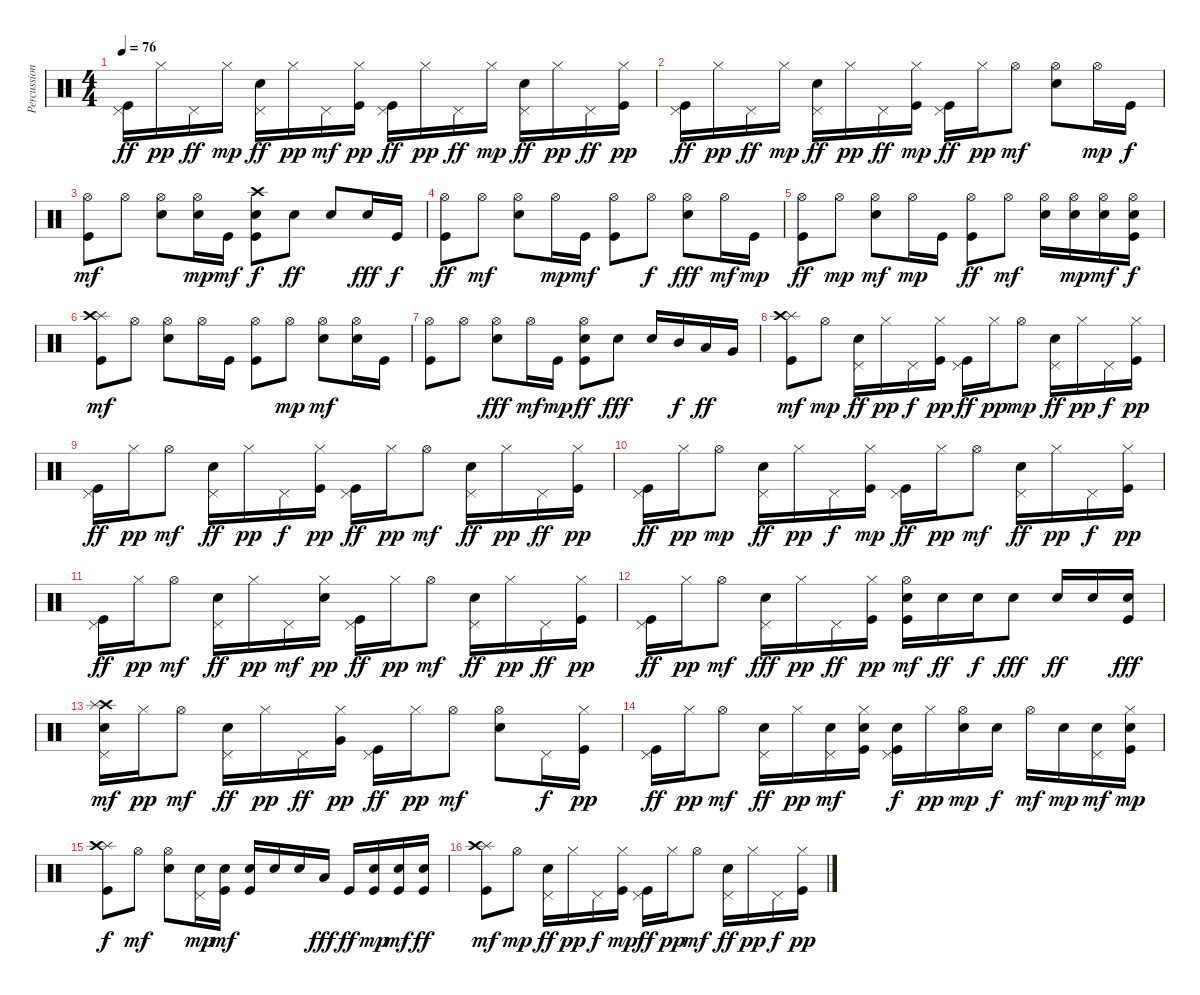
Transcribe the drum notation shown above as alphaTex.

\track ("Percussion" "Percussion") {instrument percussion}
\staff {score}
\articulation defaults
\ts (4 4)
\tempo 76
\clef neutral
\ks c
("Pedal Hi-Hat (hit)" "Kick (hit)").16{dy ff} "Hi-Hat (closed)".16{dy pp} "Pedal Hi-Hat (hit)".16{dy ff} "Hi-Hat (closed)".16{dy mp} ("Pedal Hi-Hat (hit)" "Snare (hit) 2").16{dy ff} "Hi-Hat (closed)".16{dy pp} "Pedal Hi-Hat (hit)".16{dy mf} ("Hi-Hat (closed)" "Kick (hit)").16{dy pp} ("Pedal Hi-Hat (hit)" "Kick (hit)").16{dy ff} "Hi-Hat (closed)".16{dy pp} "Pedal Hi-Hat (hit)".16{dy ff} "Hi-Hat (closed)".16{dy mp} ("Pedal Hi-Hat (hit)" "Snare (hit) 2").16{dy ff} "Hi-Hat (closed)".16{dy pp} "Pedal Hi-Hat (hit)".16{dy ff} ("Hi-Hat (closed)" "Kick (hit)").16{dy pp} |
("Pedal Hi-Hat (hit)" "Kick (hit)").16{dy ff} "Hi-Hat (closed)".16{dy pp} "Pedal Hi-Hat (hit)".16{dy ff} "Hi-Hat (closed)".16{dy mp} ("Pedal Hi-Hat (hit)" "Snare (hit) 2").16{dy ff} "Hi-Hat (closed)".16{dy pp} "Pedal Hi-Hat (hit)".16{dy ff} ("Hi-Hat (closed)" "Kick (hit)").16{dy mp} ("Pedal Hi-Hat (hit)" "Kick (hit)").16{dy ff} "Hi-Hat (closed)".16{dy pp} "Hi-Hat (open)".8{dy mf} ("Hi-Hat (open)" "Snare (hit) 2").8 "Hi-Hat (open)".16{dy mp} "Kick (hit)".16{dy f} |
("Hi-Hat (open)" "Kick (hit)").8{dy mf} "Hi-Hat (open)".8 ("Hi-Hat (open)" "Snare (hit) 2").8 ("Hi-Hat (open)" "Snare (hit) 2").16{dy mp} "Kick (hit)".16{dy mf} ("Crash high (hit)" "Snare (hit) 2" "Kick (hit)").8{dy f} "Snare (hit) 2".8{dy ff} "Snare (hit) 2".8 "Snare (hit) 2".16{dy fff} "Kick (hit)".16{dy f} |
("Hi-Hat (open)" "Kick (hit)").8{dy ff} "Hi-Hat (open)".8{dy mf} ("Hi-Hat (open)" "Snare (hit) 2").8 "Hi-Hat (open)".16{dy mp} "Kick (hit)".16{dy mf} ("Hi-Hat (open)" "Kick (hit)").8 "Hi-Hat (open)".8{dy f} ("Hi-Hat (open)" "Snare (hit) 2").8{dy fff} "Hi-Hat (open)".16{dy mf} "Kick (hit)".16{dy mp} |
("Hi-Hat (open)" "Kick (hit)").8{dy ff} "Hi-Hat (open)".8{dy mp} ("Hi-Hat (open)" "Snare (hit) 2").8{dy mf} "Hi-Hat (open)".16{dy mp} "Kick (hit)".16 ("Hi-Hat (open)" "Kick (hit)").8{dy ff} "Hi-Hat (open)".8{dy mf} ("Hi-Hat (open)" "Snare (hit) 2").16 ("Hi-Hat (open)" "Snare (hit) 2").16{dy mp} ("Hi-Hat (open)" "Snare (hit) 2").16{dy mf} ("Hi-Hat (open)" "Snare (hit) 2" "Kick (hit)").16{dy f} |
("Splash (hit)" "Crash high (hit)" "Kick (hit)").8{dy mf} "Hi-Hat (open)".8 ("Hi-Hat (open)" "Snare (hit) 2").8 "Hi-Hat (open)".16 "Kick (hit)".16 ("Hi-Hat (open)" "Kick (hit)").8 "Hi-Hat (open)".8{dy mp} ("Hi-Hat (open)" "Snare (hit) 2").8{dy mf} ("Hi-Hat (open)" "Snare (hit) 2").16 "Kick (hit)".16 |
("Hi-Hat (open)" "Kick (hit)").8 "Hi-Hat (open)".8 ("Hi-Hat (open)" "Snare (hit) 2").8{dy fff} "Hi-Hat (open)".16{dy mf} "Kick (hit)".16{dy mp} ("Hi-Hat (open)" "Snare (hit) 2" "Kick (hit)").8{dy ff} "Snare (hit) 2".8{dy fff} "Snare (hit) 2".16 "Mid Tom (hit)".16{dy f} "Low Tom (hit)".16{dy ff} "Very Low Tom (hit)".16 |
("Splash (hit)" "Crash high (hit)" "Kick (hit)").8{dy mf} "Hi-Hat (open)".8{dy mp} ("Pedal Hi-Hat (hit)" "Snare (hit) 2").16{dy ff} "Hi-Hat (closed)".16{dy pp} "Pedal Hi-Hat (hit)".16{dy f} ("Hi-Hat (closed)" "Kick (hit)").16{dy pp} ("Pedal Hi-Hat (hit)" "Kick (hit)").16{dy ff} "Hi-Hat (closed)".16{dy pp} "Hi-Hat (open)".8{dy mp} ("Pedal Hi-Hat (hit)" "Snare (hit) 2").16{dy ff} "Hi-Hat (closed)".16{dy pp} "Pedal Hi-Hat (hit)".16{dy f} ("Hi-Hat (closed)" "Kick (hit)").16{dy pp} |
("Pedal Hi-Hat (hit)" "Kick (hit)").16{dy ff} "Hi-Hat (closed)".16{dy pp} "Hi-Hat (open)".8{dy mf} ("Pedal Hi-Hat (hit)" "Snare (hit) 2").16{dy ff} "Hi-Hat (closed)".16{dy pp} "Pedal Hi-Hat (hit)".16{dy f} ("Hi-Hat (closed)" "Kick (hit)").16{dy pp} ("Pedal Hi-Hat (hit)" "Kick (hit)").16{dy ff} "Hi-Hat (closed)".16{dy pp} "Hi-Hat (open)".8{dy mf} ("Pedal Hi-Hat (hit)" "Snare (hit) 2").16{dy ff} "Hi-Hat (closed)".16{dy pp} "Pedal Hi-Hat (hit)".16{dy ff} ("Hi-Hat (closed)" "Kick (hit)").16{dy pp} |
("Pedal Hi-Hat (hit)" "Kick (hit)").16{dy ff} "Hi-Hat (closed)".16{dy pp} "Hi-Hat (open)".8{dy mp} ("Pedal Hi-Hat (hit)" "Snare (hit) 2").16{dy ff} "Hi-Hat (closed)".16{dy pp} "Pedal Hi-Hat (hit)".16{dy f} ("Hi-Hat (closed)" "Kick (hit)").16{dy mp} ("Pedal Hi-Hat (hit)" "Kick (hit)").16{dy ff} "Hi-Hat (closed)".16{dy pp} "Hi-Hat (open)".8{dy mf} ("Pedal Hi-Hat (hit)" "Snare (hit) 2").16{dy ff} "Hi-Hat (closed)".16{dy pp} "Pedal Hi-Hat (hit)".16{dy f} ("Hi-Hat (closed)" "Kick (hit)").16{dy pp} |
("Pedal Hi-Hat (hit)" "Kick (hit)").16{dy ff} "Hi-Hat (closed)".16{dy pp} "Hi-Hat (open)".8{dy mf} ("Pedal Hi-Hat (hit)" "Snare (hit) 2").16{dy ff} "Hi-Hat (closed)".16{dy pp} "Pedal Hi-Hat (hit)".16{dy mf} ("Hi-Hat (closed)" "Snare (hit) 2").16{dy pp} ("Pedal Hi-Hat (hit)" "Kick (hit)").16{dy ff} "Hi-Hat (closed)".16{dy pp} "Hi-Hat (open)".8{dy mf} ("Pedal Hi-Hat (hit)" "Snare (hit) 2").16{dy ff} "Hi-Hat (closed)".16{dy pp} "Pedal Hi-Hat (hit)".16{dy ff} ("Hi-Hat (closed)" "Kick (hit)").16{dy pp} |
("Pedal Hi-Hat (hit)" "Kick (hit)").16{dy ff} "Hi-Hat (closed)".16{dy pp} "Hi-Hat (open)".8{dy mf} ("Pedal Hi-Hat (hit)" "Snare (hit) 2").16{dy fff} "Hi-Hat (closed)".16{dy pp} "Pedal Hi-Hat (hit)".16{dy ff} ("Hi-Hat (closed)" "Kick (hit)").16{dy pp} ("Hi-Hat (open)" "Snare (hit) 2" "Kick (hit)").16{dy mf} "Snare (hit) 2".16{dy ff} "Snare (hit) 2".16{dy f} "Snare (hit) 2".8{dy fff} "Snare (hit) 2".16{dy ff} "Snare (hit) 2".16 ("Kick (hit)" "Snare (hit) 2").16{dy fff} |
("Pedal Hi-Hat (hit)" "Crash high (hit)" "Splash (hit)" "Snare (hit) 2").16{dy mf} "Hi-Hat (closed)".16{dy pp} "Hi-Hat (open)".8{dy mf} ("Pedal Hi-Hat (hit)" "Snare (hit) 2").16{dy ff} "Hi-Hat (closed)".16{dy pp} "Pedal Hi-Hat (hit)".16{dy ff} ("Very Low Tom (hit)" "Hi-Hat (closed)").16{dy pp} ("Pedal Hi-Hat (hit)" "Kick (hit)").16{dy ff} "Hi-Hat (closed)".16{dy pp} "Hi-Hat (open)".8{dy mf} ("Hi-Hat (open)" "Snare (hit) 2").8 "Pedal Hi-Hat (hit)".16{dy f} ("Hi-Hat (closed)" "Kick (hit)").16{dy pp} |
("Pedal Hi-Hat (hit)" "Kick (hit)").16{dy ff} "Hi-Hat (closed)".16{dy pp} "Hi-Hat (open)".8{dy mf} ("Pedal Hi-Hat (hit)" "Snare (hit) 2").16{dy ff} "Hi-Hat (closed)".16{dy pp} ("Pedal Hi-Hat (hit)" "Snare (hit) 2").16{dy mf} ("Hi-Hat (closed)" "Snare (hit) 2" "Kick (hit)").16 ("Pedal Hi-Hat (hit)" "Snare (hit) 2" "Kick (hit)").16{dy f} "Hi-Hat (closed)".16{dy pp} ("Hi-Hat (open)" "Snare (hit) 2").16{dy mp} "Snare (hit) 2".16{dy f} "Hi-Hat (open)".16{dy mf} "Snare (hit) 2".16{dy mp} ("Pedal Hi-Hat (hit)" "Snare (hit) 2").16{dy mf} ("Hi-Hat (closed)" "Snare (hit) 2" "Kick (hit)").16{dy mp} |
("Splash (hit)" "Crash high (hit)" "Kick (hit)").8{dy f} "Hi-Hat (open)".8{dy mf} ("Hi-Hat (open)" "Snare (hit) 2").8 ("Pedal Hi-Hat (hit)" "Snare (hit) 2").16{dy mp} ("Kick (hit)" "Snare (hit) 2").16{dy mf} ("Kick (hit)" "Snare (hit) 2").16 "Snare (hit) 2".16 "Snare (hit) 2".16 "Low Tom (hit)".16{dy fff} "Kick (hit)".16{dy ff} ("Kick (hit)" "Snare (hit) 2").16{dy mp} ("Kick (hit)" "Snare (hit) 2").16{dy mf} ("Kick (hit)" "Snare (hit) 2").16{dy ff} |
("Splash (hit)" "Crash high (hit)" "Kick (hit)").8{dy mf} "Hi-Hat (open)".8{dy mp} ("Pedal Hi-Hat (hit)" "Snare (hit) 2").16{dy ff} "Hi-Hat (closed)".16{dy pp} "Pedal Hi-Hat (hit)".16{dy f} ("Hi-Hat (closed)" "Kick (hit)").16{dy mp} ("Pedal Hi-Hat (hit)" "Kick (hit)").16{dy ff} "Hi-Hat (closed)".16{dy pp} "Hi-Hat (open)".8{dy mf} ("Pedal Hi-Hat (hit)" "Snare (hit) 2").16{dy ff} "Hi-Hat (closed)".16{dy pp} "Pedal Hi-Hat (hit)".16{dy f} ("Kick (hit)" "Hi-Hat (closed)").16{dy pp}
